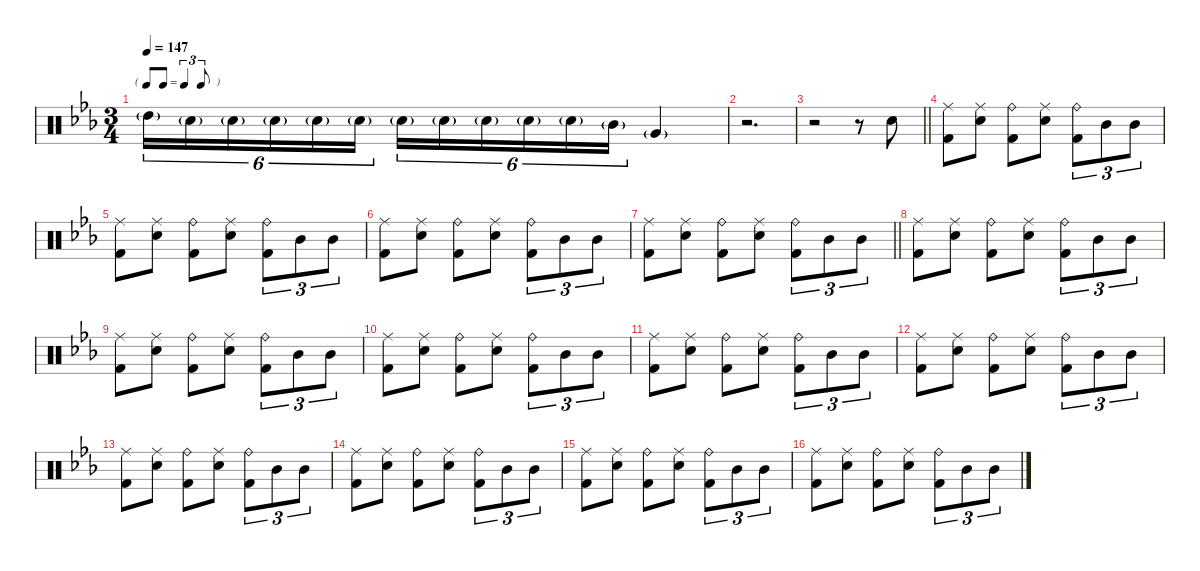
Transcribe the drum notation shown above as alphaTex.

\defaultSystemsLayout 4
\hideDynamics
\bracketExtendMode nobrackets
\singleTrackTrackNamePolicy hidden
\multiTrackTrackNamePolicy hidden
\firstSystemTrackNameMode fullname
\firstSystemTrackNameOrientation horizontal
\otherSystemsTrackNameOrientation horizontal
\track ("Percussion" "drm.") {defaultSystemsLayout 8 instrument percussion}
\staff {score}
\articulation defaults
\ts (3 4)
\beaming (8 2 2 2)
\tf triplet8th
\tempo 147
\clef neutral
\ks eb "High Tom (hit)"{g acc forcenatural}.16{tu (6 4) dy mf beam Down} "Snare (hit) 2"{g acc forcenatural}.16{tu (6 4) beam Down} "Snare (hit) 2"{g acc forcenatural}.16{tu (6 4) beam Down} "Snare (hit) 2"{g acc forcenatural}.16{tu (6 4) beam Down} "Snare (hit) 2"{g acc forcenatural}.16{tu (6 4) beam Down} "Snare (hit) 2"{g acc forcenatural}.16{tu (6 4) beam Down} "Snare (hit) 2"{g acc forcenatural}.16{tu (6 4) beam Down} "Snare (hit) 2"{g acc forcenatural}.16{tu (6 4) beam Down} "Snare (hit) 2"{g acc forcenatural}.16{tu (6 4) beam Down} "Snare (hit) 2"{g acc forcenatural}.16{tu (6 4) beam Down} "Snare (hit) 2"{g acc forcenatural}.16{tu (6 4) beam Down} "Mid Tom (hit)"{g acc forcenatural}.16{tu (6 4) beam Down} "Very Low Tom (hit)"{g acc forcenatural}.4{beam Up}
|
r.2{d beam Down} |
\barLineRight lightlight
r.2{beam Down} r.8{beam Down} "Snare (hit) 2"{acc forcenatural}.8{dy f beam Down} |
("Ride (middle)"{acc forcenatural} "Kick (hit) 2"{acc forcenatural}).8{beam Down} ("Ride (middle)"{acc forcenatural} "Snare (hit) 2"{acc forcenatural}).8{beam Down} ("Ride (bell)"{acc forcenatural} "Kick (hit) 2"{acc forcenatural}).8{beam Down} ("Ride (middle)"{acc forcenatural} "Snare (hit) 2"{acc forcenatural}).8{beam Down} ("Ride (bell)"{acc forcenatural} "Kick (hit) 2"{acc forcenatural}).8{tu (3 2) beam Down} "Mid Tom (hit)"{acc forcenatural}.8{tu (3 2) beam Down} "Mid Tom (hit)"{acc forcenatural}.8{tu (3 2) beam Down} |
("Ride (middle)"{acc forcenatural} "Kick (hit) 2"{acc forcenatural}).8{beam Down} ("Ride (middle)"{acc forcenatural} "Snare (hit) 2"{acc forcenatural}).8{beam Down} ("Ride (bell)"{acc forcenatural} "Kick (hit) 2"{acc forcenatural}).8{beam Down} ("Ride (middle)"{acc forcenatural} "Snare (hit) 2"{acc forcenatural}).8{beam Down} ("Ride (bell)"{acc forcenatural} "Kick (hit) 2"{acc forcenatural}).8{tu (3 2) beam Down} "Mid Tom (hit)"{acc forcenatural}.8{tu (3 2) beam Down} "Mid Tom (hit)"{acc forcenatural}.8{tu (3 2) beam Down} |
("Ride (middle)"{acc forcenatural} "Kick (hit) 2"{acc forcenatural}).8{beam Down} ("Ride (middle)"{acc forcenatural} "Snare (hit) 2"{acc forcenatural}).8{beam Down} ("Ride (bell)"{acc forcenatural} "Kick (hit) 2"{acc forcenatural}).8{beam Down} ("Ride (middle)"{acc forcenatural} "Snare (hit) 2"{acc forcenatural}).8{beam Down} ("Ride (bell)"{acc forcenatural} "Kick (hit) 2"{acc forcenatural}).8{tu (3 2) beam Down} "Mid Tom (hit)"{acc forcenatural}.8{tu (3 2) beam Down} "Mid Tom (hit)"{acc forcenatural}.8{tu (3 2) beam Down} |
\barLineRight lightlight
("Ride (middle)"{acc forcenatural} "Kick (hit) 2"{acc forcenatural}).8{beam Down} ("Ride (middle)"{acc forcenatural} "Snare (hit) 2"{acc forcenatural}).8{beam Down} ("Ride (bell)"{acc forcenatural} "Kick (hit) 2"{acc forcenatural}).8{beam Down} ("Ride (middle)"{acc forcenatural} "Snare (hit) 2"{acc forcenatural}).8{beam Down} ("Ride (bell)"{acc forcenatural} "Kick (hit) 2"{acc forcenatural}).8{tu (3 2) beam Down} "Mid Tom (hit)"{acc forcenatural}.8{tu (3 2) beam Down} "Mid Tom (hit)"{acc forcenatural}.8{tu (3 2) beam Down} |
("Ride (middle)"{acc forcenatural} "Kick (hit) 2"{acc forcenatural}).8{beam Down} ("Ride (middle)"{acc forcenatural} "Snare (hit) 2"{acc forcenatural}).8{beam Down} ("Ride (bell)"{acc forcenatural} "Kick (hit) 2"{acc forcenatural}).8{beam Down} ("Ride (middle)"{acc forcenatural} "Snare (hit) 2"{acc forcenatural}).8{beam Down} ("Ride (bell)"{acc forcenatural} "Kick (hit) 2"{acc forcenatural}).8{tu (3 2) beam Down} "Mid Tom (hit)"{acc forcenatural}.8{tu (3 2) beam Down} "Mid Tom (hit)"{acc forcenatural}.8{tu (3 2) beam Down} |
("Ride (middle)"{acc forcenatural} "Kick (hit) 2"{acc forcenatural}).8{beam Down} ("Ride (middle)"{acc forcenatural} "Snare (hit) 2"{acc forcenatural}).8{beam Down} ("Ride (bell)"{acc forcenatural} "Kick (hit) 2"{acc forcenatural}).8{beam Down} ("Ride (middle)"{acc forcenatural} "Snare (hit) 2"{acc forcenatural}).8{beam Down} ("Ride (bell)"{acc forcenatural} "Kick (hit) 2"{acc forcenatural}).8{tu (3 2) beam Down} "Mid Tom (hit)"{acc forcenatural}.8{tu (3 2) beam Down} "Mid Tom (hit)"{acc forcenatural}.8{tu (3 2) beam Down} |
("Ride (middle)"{acc forcenatural} "Kick (hit) 2"{acc forcenatural}).8{beam Down} ("Ride (middle)"{acc forcenatural} "Snare (hit) 2"{acc forcenatural}).8{beam Down} ("Ride (bell)"{acc forcenatural} "Kick (hit) 2"{acc forcenatural}).8{beam Down} ("Ride (middle)"{acc forcenatural} "Snare (hit) 2"{acc forcenatural}).8{beam Down} ("Ride (bell)"{acc forcenatural} "Kick (hit) 2"{acc forcenatural}).8{tu (3 2) beam Down} "Mid Tom (hit)"{acc forcenatural}.8{tu (3 2) beam Down} "Mid Tom (hit)"{acc forcenatural}.8{tu (3 2) beam Down} |
("Ride (middle)"{acc forcenatural} "Kick (hit) 2"{acc forcenatural}).8{beam Down} ("Ride (middle)"{acc forcenatural} "Snare (hit) 2"{acc forcenatural}).8{beam Down} ("Ride (bell)"{acc forcenatural} "Kick (hit) 2"{acc forcenatural}).8{beam Down} ("Ride (middle)"{acc forcenatural} "Snare (hit) 2"{acc forcenatural}).8{beam Down} ("Ride (bell)"{acc forcenatural} "Kick (hit) 2"{acc forcenatural}).8{tu (3 2) beam Down} "Mid Tom (hit)"{acc forcenatural}.8{tu (3 2) beam Down} "Mid Tom (hit)"{acc forcenatural}.8{tu (3 2) beam Down} |
("Ride (middle)"{acc forcenatural} "Kick (hit) 2"{acc forcenatural}).8{beam Down} ("Ride (middle)"{acc forcenatural} "Snare (hit) 2"{acc forcenatural}).8{beam Down} ("Ride (bell)"{acc forcenatural} "Kick (hit) 2"{acc forcenatural}).8{beam Down} ("Ride (middle)"{acc forcenatural} "Snare (hit) 2"{acc forcenatural}).8{beam Down} ("Ride (bell)"{acc forcenatural} "Kick (hit) 2"{acc forcenatural}).8{tu (3 2) beam Down} "Mid Tom (hit)"{acc forcenatural}.8{tu (3 2) beam Down} "Mid Tom (hit)"{acc forcenatural}.8{tu (3 2) beam Down} |
("Ride (middle)"{acc forcenatural} "Kick (hit) 2"{acc forcenatural}).8{beam Down} ("Ride (middle)"{acc forcenatural} "Snare (hit) 2"{acc forcenatural}).8{beam Down} ("Ride (bell)"{acc forcenatural} "Kick (hit) 2"{acc forcenatural}).8{beam Down} ("Ride (middle)"{acc forcenatural} "Snare (hit) 2"{acc forcenatural}).8{beam Down} ("Ride (bell)"{acc forcenatural} "Kick (hit) 2"{acc forcenatural}).8{tu (3 2) beam Down} "Mid Tom (hit)"{acc forcenatural}.8{tu (3 2) beam Down} "Mid Tom (hit)"{acc forcenatural}.8{tu (3 2) beam Down} |
("Ride (middle)"{acc forcenatural} "Kick (hit) 2"{acc forcenatural}).8{beam Down} ("Ride (middle)"{acc forcenatural} "Snare (hit) 2"{acc forcenatural}).8{beam Down} ("Ride (bell)"{acc forcenatural} "Kick (hit) 2"{acc forcenatural}).8{beam Down} ("Ride (middle)"{acc forcenatural} "Snare (hit) 2"{acc forcenatural}).8{beam Down} ("Ride (bell)"{acc forcenatural} "Kick (hit) 2"{acc forcenatural}).8{tu (3 2) beam Down} "Mid Tom (hit)"{acc forcenatural}.8{tu (3 2) beam Down} "Mid Tom (hit)"{acc forcenatural}.8{tu (3 2) beam Down} |
("Ride (middle)"{acc forcenatural} "Kick (hit) 2"{acc forcenatural}).8{beam Down} ("Ride (middle)"{acc forcenatural} "Snare (hit) 2"{acc forcenatural}).8{beam Down} ("Ride (bell)"{acc forcenatural} "Kick (hit) 2"{acc forcenatural}).8{beam Down} ("Ride (middle)"{acc forcenatural} "Snare (hit) 2"{acc forcenatural}).8{beam Down} ("Ride (bell)"{acc forcenatural} "Kick (hit) 2"{acc forcenatural}).8{tu (3 2) beam Down} "Mid Tom (hit)"{acc forcenatural}.8{tu (3 2) beam Down} "Mid Tom (hit)"{acc forcenatural}.8{tu (3 2) beam Down} |
("Ride (middle)"{acc forcenatural} "Kick (hit) 2"{acc forcenatural}).8{beam Down} ("Ride (middle)"{acc forcenatural} "Snare (hit) 2"{acc forcenatural}).8{beam Down} ("Ride (bell)"{acc forcenatural} "Kick (hit) 2"{acc forcenatural}).8{beam Down} ("Ride (middle)"{acc forcenatural} "Snare (hit) 2"{acc forcenatural}).8{beam Down} ("Ride (bell)"{acc forcenatural} "Kick (hit) 2"{acc forcenatural}).8{tu (3 2) beam Down} "Mid Tom (hit)"{acc forcenatural}.8{tu (3 2) beam Down} "Mid Tom (hit)"{acc forcenatural}.8{tu (3 2) beam Down}
